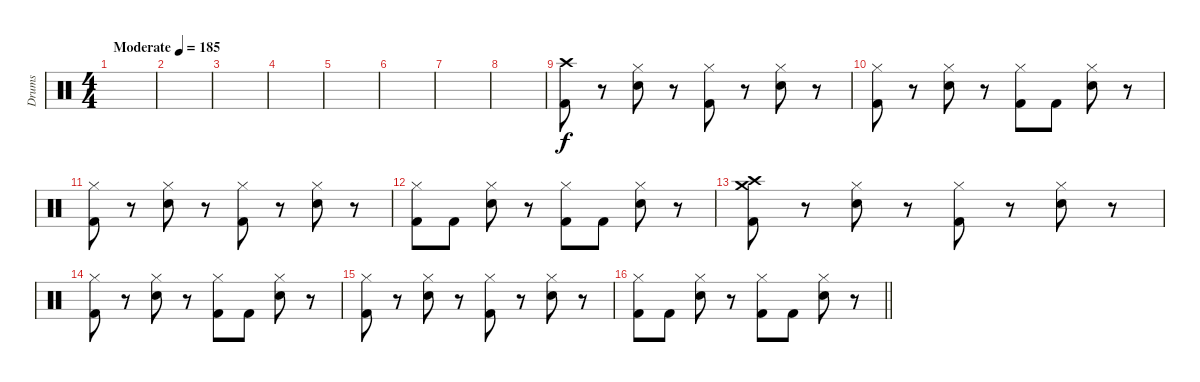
\track ("Drums" "Drums") {instrument percussion}
\staff {score}
\articulation defaults
\ts (4 4)
\tempo (185 "Moderate")
\clef neutral
\ks c
|
|
|
|
|
|
|
|
("Crash high (hit)" "Kick (hit) 2").8 r.8 ("Hi-Hat (closed)" "Electric Snare (hit)").8 r.8 ("Hi-Hat (closed)" "Kick (hit) 2").8 r.8 ("Hi-Hat (closed)" "Electric Snare (hit)").8 r.8 |
("Hi-Hat (closed)" "Kick (hit) 2").8 r.8 ("Hi-Hat (closed)" "Electric Snare (hit)").8 r.8 ("Hi-Hat (closed)" "Kick (hit) 2").8 "Kick (hit) 2".8 ("Hi-Hat (closed)" "Electric Snare (hit)").8 r.8 |
("Hi-Hat (closed)" "Kick (hit) 2").8 r.8 ("Hi-Hat (closed)" "Electric Snare (hit)").8 r.8 ("Hi-Hat (closed)" "Kick (hit) 2").8 r.8 ("Hi-Hat (closed)" "Electric Snare (hit)").8 r.8 |
("Hi-Hat (closed)" "Kick (hit) 2").8 "Kick (hit) 2".8 ("Hi-Hat (closed)" "Electric Snare (hit)").8 r.8 ("Hi-Hat (closed)" "Kick (hit) 2").8 "Kick (hit) 2".8 ("Hi-Hat (closed)" "Electric Snare (hit)").8 r.8 |
("Crash high (hit)" "Crash medium (hit)" "Kick (hit) 2").8 r.8 ("Hi-Hat (closed)" "Electric Snare (hit)").8 r.8 ("Hi-Hat (closed)" "Kick (hit) 2").8 r.8 ("Hi-Hat (closed)" "Electric Snare (hit)").8 r.8 |
("Hi-Hat (closed)" "Kick (hit) 2").8 r.8 ("Hi-Hat (closed)" "Electric Snare (hit)").8 r.8 ("Hi-Hat (closed)" "Kick (hit) 2").8 "Kick (hit) 2".8 ("Hi-Hat (closed)" "Electric Snare (hit)").8 r.8 |
("Hi-Hat (closed)" "Kick (hit) 2").8 r.8 ("Hi-Hat (closed)" "Electric Snare (hit)").8 r.8 ("Hi-Hat (closed)" "Kick (hit) 2").8 r.8 ("Hi-Hat (closed)" "Electric Snare (hit)").8 r.8 |
\barLineRight lightlight
("Hi-Hat (closed)" "Kick (hit) 2").8 "Kick (hit) 2".8 ("Hi-Hat (closed)" "Electric Snare (hit)").8 r.8 ("Hi-Hat (closed)" "Kick (hit) 2").8 "Kick (hit) 2".8 ("Hi-Hat (closed)" "Electric Snare (hit)").8 r.8
